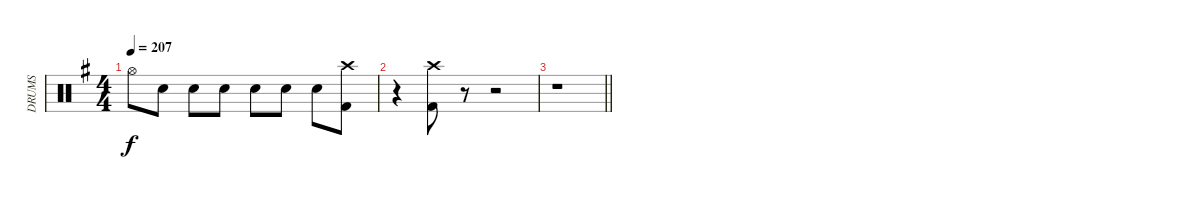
\track ("DRUMS" "DRUMS") {instrument percussion}
\staff {score}
\articulation defaults
\ts (4 4)
\tempo 207
\clef neutral
\ks eminor "Hi-Hat (open)".8{dy f} "Snare (hit) 2".8 "Snare (hit) 2".8 "Snare (hit) 2".8 "Snare (hit) 2".8 "Snare (hit) 2".8 "Snare (hit) 2".8
("Crash high (hit)" "Kick (hit) 2").8 |
r.4 ("Crash high (hit)" "Kick (hit) 2").8 r.8 r.2 |
\barLineRight lightlight
r.1
